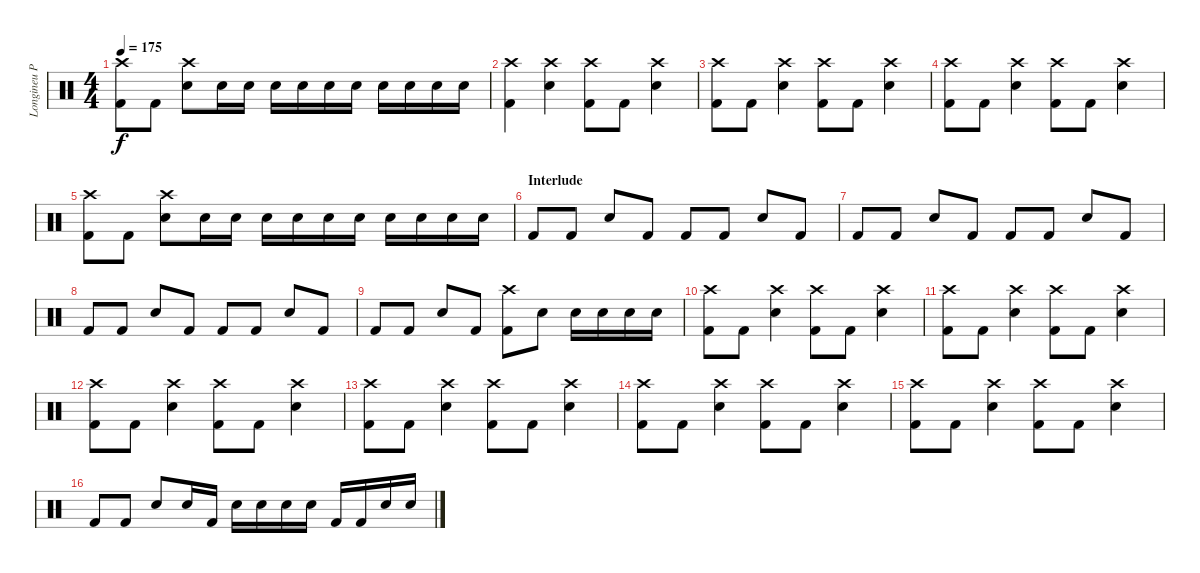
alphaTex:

\track ("Longineu Parsons III Drums" "Longineu P") {instrument percussion}
\staff {score}
\articulation defaults
\ts (4 4)
\tempo 175
\clef neutral
\ks c
("Kick (hit) 2" "Crash high (hit)").8{dy f} "Kick (hit) 2".8 ("Snare (hit) 2" "Crash high (hit)").8 "Snare (hit) 2".16 "Snare (hit) 2".16 "Snare (hit) 2".16 "Snare (hit) 2".16 "Snare (hit) 2".16 "Snare (hit) 2".16 "Snare (hit) 2".16 "Snare (hit) 2".16 "Snare (hit) 2".16 "Snare (hit) 2".16 |
("Kick (hit) 2" "Crash high (hit)").4 ("Snare (hit) 2" "Crash high (hit)").4 ("Kick (hit) 2" "Crash high (hit)").8 "Kick (hit) 2".8 ("Snare (hit) 2" "Crash high (hit)").4 |
("Kick (hit) 2" "Crash high (hit)").8 "Kick (hit) 2".8 ("Snare (hit) 2" "Crash high (hit)").4 ("Kick (hit) 2" "Crash high (hit)").8 "Kick (hit) 2".8 ("Snare (hit) 2" "Crash high (hit)").4 |
("Kick (hit) 2" "Crash high (hit)").8 "Kick (hit) 2".8 ("Snare (hit) 2" "Crash high (hit)").4 ("Kick (hit) 2" "Crash high (hit)").8 "Kick (hit) 2".8 ("Snare (hit) 2" "Crash high (hit)").4 |
("Kick (hit) 2" "Crash high (hit)").8 "Kick (hit) 2".8 ("Snare (hit) 2" "Crash high (hit)").8 "Snare (hit) 2".16 "Snare (hit) 2".16 "Snare (hit) 2".16 "Snare (hit) 2".16 "Snare (hit) 2".16 "Snare (hit) 2".16 "Snare (hit) 2".16 "Snare (hit) 2".16 "Snare (hit) 2".16 "Snare (hit) 2".16 |
\section ("" "Interlude")
"Kick (hit) 2".8 "Kick (hit) 2".8 "Snare (hit) 2".8 "Kick (hit) 2".8 "Kick (hit) 2".8 "Kick (hit) 2".8 "Snare (hit) 2".8 "Kick (hit) 2".8 |
"Kick (hit) 2".8 "Kick (hit) 2".8 "Snare (hit) 2".8 "Kick (hit) 2".8 "Kick (hit) 2".8 "Kick (hit) 2".8 "Snare (hit) 2".8 "Kick (hit) 2".8 |
"Kick (hit) 2".8 "Kick (hit) 2".8 "Snare (hit) 2".8 "Kick (hit) 2".8 "Kick (hit) 2".8 "Kick (hit) 2".8 "Snare (hit) 2".8 "Kick (hit) 2".8 |
"Kick (hit) 2".8 "Kick (hit) 2".8 "Snare (hit) 2".8 "Kick (hit) 2".8 ("Crash high (hit)" "Kick (hit) 2").8 "Snare (hit) 2".8 "Snare (hit) 2".16 "Snare (hit) 2".16 "Snare (hit) 2".16 "Snare (hit) 2".16 |
("Crash high (hit)" "Kick (hit) 2").8 "Kick (hit) 2".8 ("Crash high (hit)" "Snare (hit) 2").4 ("Crash high (hit)" "Kick (hit) 2").8 "Kick (hit) 2".8 ("Crash high (hit)" "Snare (hit) 2").4 |
("Crash high (hit)" "Kick (hit) 2").8 "Kick (hit) 2".8 ("Crash high (hit)" "Snare (hit) 2").4 ("Crash high (hit)" "Kick (hit) 2").8 "Kick (hit) 2".8 ("Crash high (hit)" "Snare (hit) 2").4 |
("Crash high (hit)" "Kick (hit) 2").8 "Kick (hit) 2".8 ("Crash high (hit)" "Snare (hit) 2").4 ("Crash high (hit)" "Kick (hit) 2").8 "Kick (hit) 2".8 ("Crash high (hit)" "Snare (hit) 2").4 |
("Crash high (hit)" "Kick (hit) 2").8 "Kick (hit) 2".8 ("Crash high (hit)" "Snare (hit) 2").4 ("Crash high (hit)" "Kick (hit) 2").8 "Kick (hit) 2".8 ("Crash high (hit)" "Snare (hit) 2").4 |
("Crash high (hit)" "Kick (hit) 2").8 "Kick (hit) 2".8 ("Crash high (hit)" "Snare (hit) 2").4 ("Crash high (hit)" "Kick (hit) 2").8 "Kick (hit) 2".8 ("Crash high (hit)" "Snare (hit) 2").4 |
("Crash high (hit)" "Kick (hit) 2").8 "Kick (hit) 2".8 ("Crash high (hit)" "Snare (hit) 2").4 ("Crash high (hit)" "Kick (hit) 2").8 "Kick (hit) 2".8 ("Crash high (hit)" "Snare (hit) 2").4 |
"Kick (hit) 2".8 "Kick (hit) 2".8 "Snare (hit) 2".8 "Snare (hit) 2".16 "Kick (hit) 2".16 "Snare (hit) 2".16 "Snare (hit) 2".16 "Snare (hit) 2".16 "Snare (hit) 2".16 "Kick (hit) 2".16 "Kick (hit) 2".16 "Snare (hit) 2".16 "Snare (hit) 2".16
